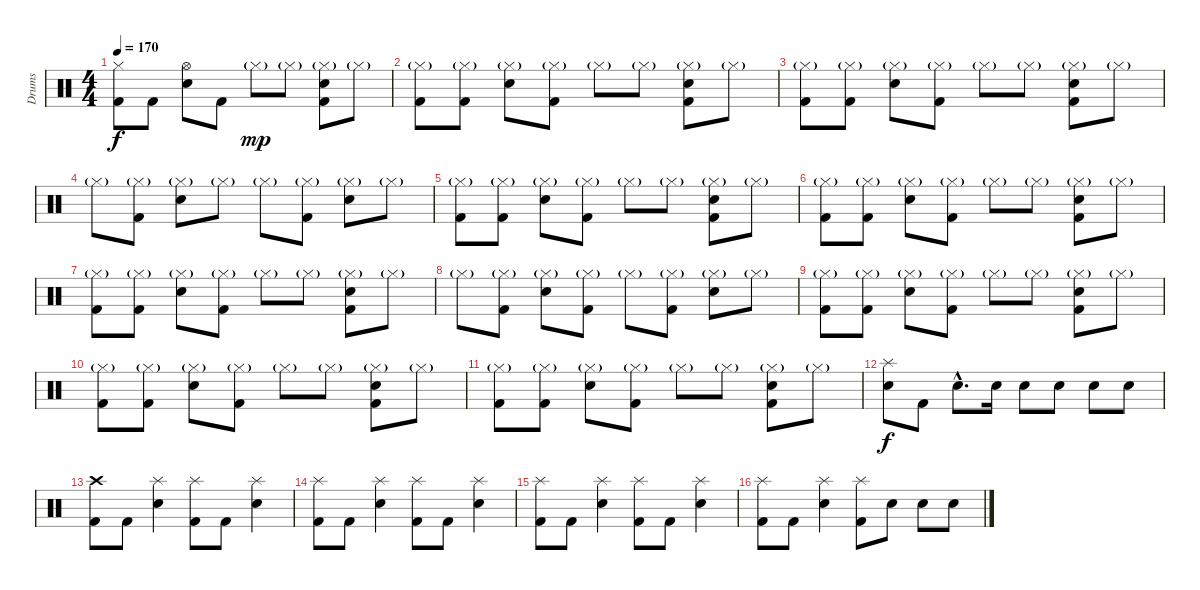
\track ("Drums" "Drums") {instrument percussion}
\staff {score}
\articulation defaults
\ts (4 4)
\tempo 170
\clef neutral
\ks c
("Hi-Hat (closed)" "Kick (hit) 2").8{dy f} "Kick (hit) 2".8 ("Hi-Hat (open)" "Electric Snare (hit)").8 "Kick (hit) 2".8 "Hi-Hat (closed)"{g}.8{dy mp} "Hi-Hat (closed)"{g}.8 ("Hi-Hat (closed)"{g} "Electric Snare (hit)" "Kick (hit) 2").8 "Hi-Hat (closed)"{g}.8 |
("Hi-Hat (closed)"{g} "Kick (hit) 2").8 ("Hi-Hat (closed)"{g} "Kick (hit) 2").8 ("Hi-Hat (closed)"{g} "Electric Snare (hit)").8 ("Hi-Hat (closed)"{g} "Kick (hit) 2").8 "Hi-Hat (closed)"{g}.8 "Hi-Hat (closed)"{g}.8 ("Hi-Hat (closed)"{g} "Electric Snare (hit)" "Kick (hit) 2").8 "Hi-Hat (closed)"{g}.8 |
("Hi-Hat (closed)"{g} "Kick (hit) 2").8 ("Hi-Hat (closed)"{g} "Kick (hit) 2").8 ("Hi-Hat (closed)"{g} "Electric Snare (hit)").8 ("Hi-Hat (closed)"{g} "Kick (hit) 2").8 "Hi-Hat (closed)"{g}.8 "Hi-Hat (closed)"{g}.8 ("Hi-Hat (closed)"{g} "Electric Snare (hit)" "Kick (hit) 2").8 "Hi-Hat (closed)"{g}.8 |
"Hi-Hat (closed)"{g}.8 ("Hi-Hat (closed)"{g} "Kick (hit) 2").8 ("Hi-Hat (closed)"{g} "Electric Snare (hit)").8 "Hi-Hat (closed)"{g}.8 "Hi-Hat (closed)"{g}.8 ("Hi-Hat (closed)"{g} "Kick (hit) 2").8 ("Hi-Hat (closed)"{g} "Electric Snare (hit)").8 "Hi-Hat (closed)"{g}.8 |
("Hi-Hat (closed)"{g} "Kick (hit) 2").8 ("Hi-Hat (closed)"{g} "Kick (hit) 2").8 ("Hi-Hat (closed)"{g} "Electric Snare (hit)").8 ("Hi-Hat (closed)"{g} "Kick (hit) 2").8 "Hi-Hat (closed)"{g}.8 "Hi-Hat (closed)"{g}.8 ("Hi-Hat (closed)"{g} "Electric Snare (hit)" "Kick (hit) 2").8 "Hi-Hat (closed)"{g}.8 |
("Hi-Hat (closed)"{g} "Kick (hit) 2").8 ("Hi-Hat (closed)"{g} "Kick (hit) 2").8 ("Hi-Hat (closed)"{g} "Electric Snare (hit)").8 ("Hi-Hat (closed)"{g} "Kick (hit) 2").8 "Hi-Hat (closed)"{g}.8 "Hi-Hat (closed)"{g}.8 ("Hi-Hat (closed)"{g} "Electric Snare (hit)" "Kick (hit) 2").8 "Hi-Hat (closed)"{g}.8 |
("Hi-Hat (closed)"{g} "Kick (hit) 2").8 ("Hi-Hat (closed)"{g} "Kick (hit) 2").8 ("Hi-Hat (closed)"{g} "Electric Snare (hit)").8 ("Hi-Hat (closed)"{g} "Kick (hit) 2").8 "Hi-Hat (closed)"{g}.8 "Hi-Hat (closed)"{g}.8 ("Hi-Hat (closed)"{g} "Electric Snare (hit)" "Kick (hit) 2").8 "Hi-Hat (closed)"{g}.8 |
"Hi-Hat (closed)"{g}.8 ("Hi-Hat (closed)"{g} "Kick (hit) 2").8 ("Hi-Hat (closed)"{g} "Electric Snare (hit)").8 ("Hi-Hat (closed)"{g} "Kick (hit) 2").8 "Hi-Hat (closed)"{g}.8 ("Hi-Hat (closed)"{g} "Kick (hit) 2").8 ("Hi-Hat (closed)"{g} "Electric Snare (hit)").8 "Hi-Hat (closed)"{g}.8 |
("Hi-Hat (closed)"{g} "Kick (hit) 2").8 ("Hi-Hat (closed)"{g} "Kick (hit) 2").8 ("Hi-Hat (closed)"{g} "Electric Snare (hit)").8 ("Hi-Hat (closed)"{g} "Kick (hit) 2").8 "Hi-Hat (closed)"{g}.8 "Hi-Hat (closed)"{g}.8 ("Hi-Hat (closed)"{g} "Electric Snare (hit)" "Kick (hit) 2").8 "Hi-Hat (closed)"{g}.8 |
("Hi-Hat (closed)"{g} "Kick (hit) 2").8 ("Hi-Hat (closed)"{g} "Kick (hit) 2").8 ("Hi-Hat (closed)"{g} "Electric Snare (hit)").8 ("Hi-Hat (closed)"{g} "Kick (hit) 2").8 "Hi-Hat (closed)"{g}.8 "Hi-Hat (closed)"{g}.8 ("Hi-Hat (closed)"{g} "Electric Snare (hit)" "Kick (hit) 2").8 "Hi-Hat (closed)"{g}.8 |
("Hi-Hat (closed)"{g} "Kick (hit) 2").8 ("Hi-Hat (closed)"{g} "Kick (hit) 2").8 ("Hi-Hat (closed)"{g} "Electric Snare (hit)").8 ("Hi-Hat (closed)"{g} "Kick (hit) 2").8 "Hi-Hat (closed)"{g}.8 "Hi-Hat (closed)"{g}.8 ("Hi-Hat (closed)"{g} "Electric Snare (hit)" "Kick (hit) 2").8 "Hi-Hat (closed)"{g}.8 |
("Splash (hit)" "Electric Snare (hit)").8{dy f} "Kick (hit) 2".8 "Electric Snare (hit)"{hac}.8{d} "Electric Snare (hit)".16 "Electric Snare (hit)".8 "Electric Snare (hit)".8 "Electric Snare (hit)".8 "Electric Snare (hit)".8 |
("Crash high (hit)" "Kick (hit) 2").8 "Kick (hit) 2".8 ("Splash (hit)" "Electric Snare (hit)").4 ("Splash (hit)" "Kick (hit) 2").8 "Kick (hit) 2".8 ("Splash (hit)" "Electric Snare (hit)").4 |
("Splash (hit)" "Kick (hit) 2").8 "Kick (hit) 2".8 ("Splash (hit)" "Electric Snare (hit)").4 ("Splash (hit)" "Kick (hit) 2").8 "Kick (hit) 2".8 ("Splash (hit)" "Electric Snare (hit)").4 |
("Splash (hit)" "Kick (hit) 2").8 "Kick (hit) 2".8 ("Splash (hit)" "Electric Snare (hit)").4 ("Splash (hit)" "Kick (hit) 2").8 "Kick (hit) 2".8 ("Splash (hit)" "Electric Snare (hit)").4 |
("Splash (hit)" "Kick (hit) 2").8 "Kick (hit) 2".8 ("Splash (hit)" "Electric Snare (hit)").4 ("Splash (hit)" "Kick (hit) 2").8 "Electric Snare (hit)".8 "Electric Snare (hit)".8 "Electric Snare (hit)".8
